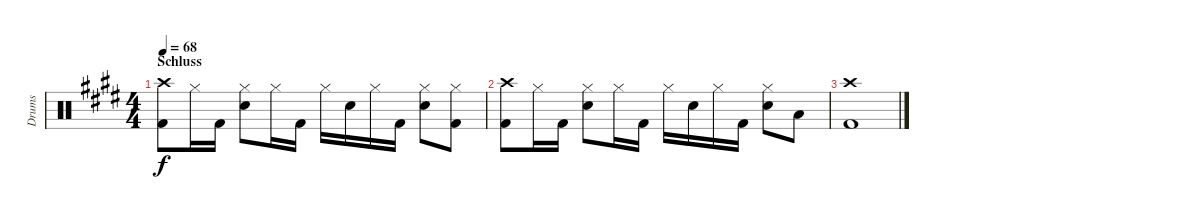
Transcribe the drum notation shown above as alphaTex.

\track ("Drums" "Drums") {instrument percussion}
\staff {score}
\articulation defaults
\ts (4 4)
\section ("" "Schluss")
\tempo 68
\clef neutral
\ks e
("Crash high (hit)" "Kick (hit) 2").8{dy f} "Hi-Hat (closed)".16 "Kick (hit) 2".16 ("Snare (hit) 2" "Hi-Hat (closed)").8 "Hi-Hat (closed)".16 "Kick (hit) 2".16 "Hi-Hat (closed)".16 "Snare (hit) 2".16 "Hi-Hat (closed)".16 "Kick (hit) 2".16 ("Hi-Hat (closed)" "Snare (hit) 2").8 ("Hi-Hat (closed)" "Kick (hit) 2").8 |
("Crash high (hit)" "Kick (hit) 2").8 "Hi-Hat (closed)".16 "Kick (hit) 2".16 ("Snare (hit) 2" "Hi-Hat (closed)").8 "Hi-Hat (closed)".16 "Kick (hit) 2".16 "Hi-Hat (closed)".16 "Snare (hit) 2".16 "Hi-Hat (closed)".16 "Kick (hit) 2".16 ("Hi-Hat (closed)" "Snare (hit) 2").8 "Low Floor Tom (hit)".8 |
("Crash high (hit)" "Kick (hit) 2").1
